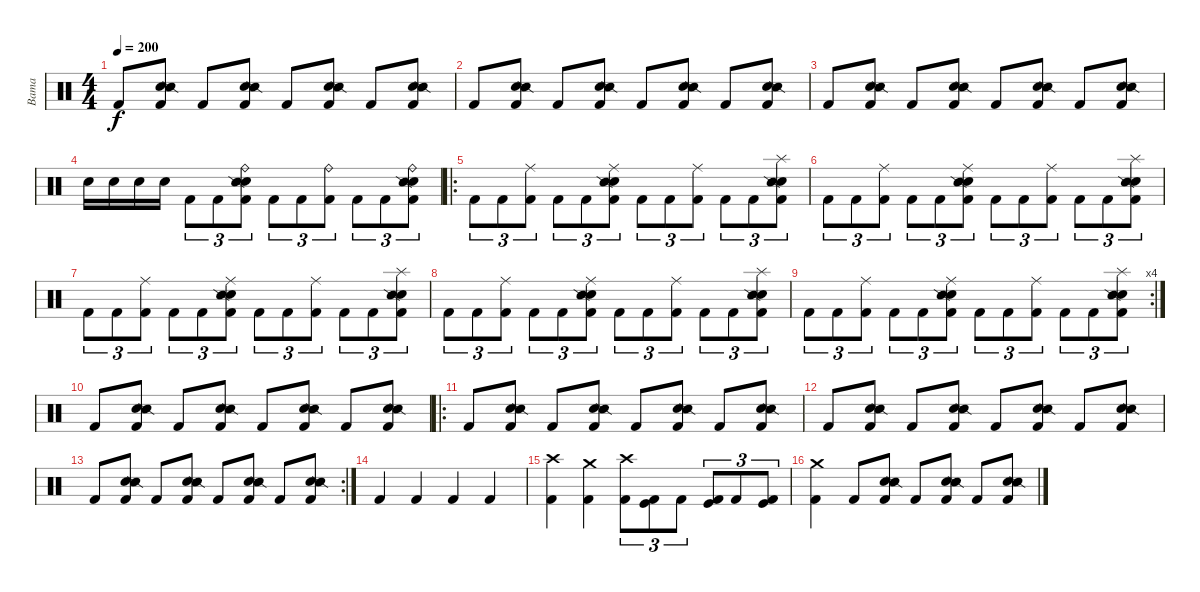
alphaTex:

\track ("Bama" "Bama") {instrument percussion}
\staff {score}
\articulation defaults
\ts (4 4)
\tempo 200
\clef neutral
\ks c "Kick (hit) 2".8{dy f}
("Electric Snare (hit)" "Snare (side stick) 2" "Kick (hit) 2").8 "Kick (hit) 2".8 ("Electric Snare (hit)" "Snare (side stick) 2" "Kick (hit) 2").8 "Kick (hit) 2".8 ("Electric Snare (hit)" "Snare (side stick) 2" "Kick (hit) 2").8 "Kick (hit) 2".8 ("Electric Snare (hit)" "Snare (side stick) 2" "Kick (hit) 2").8 |
"Kick (hit) 2".8 ("Electric Snare (hit)" "Snare (side stick) 2" "Kick (hit) 2").8 "Kick (hit) 2".8 ("Electric Snare (hit)" "Snare (side stick) 2" "Kick (hit) 2").8 "Kick (hit) 2".8 ("Electric Snare (hit)" "Snare (side stick) 2" "Kick (hit) 2").8 "Kick (hit) 2".8 ("Electric Snare (hit)" "Snare (side stick) 2" "Kick (hit) 2").8 |
"Kick (hit) 2".8 ("Electric Snare (hit)" "Snare (side stick) 2" "Kick (hit) 2").8 "Kick (hit) 2".8 ("Electric Snare (hit)" "Snare (side stick) 2" "Kick (hit) 2").8 "Kick (hit) 2".8 ("Electric Snare (hit)" "Snare (side stick) 2" "Kick (hit) 2").8 "Kick (hit) 2".8 ("Electric Snare (hit)" "Snare (side stick) 2" "Kick (hit) 2").8 |
"Electric Snare (hit)".16 "Electric Snare (hit)".16 "Electric Snare (hit)".16 "Electric Snare (hit)".16 "Kick (hit) 2".8{tu (3 2)} "Kick (hit) 2".8{tu (3 2)} ("Ride (bell)" "Electric Snare (hit)" "Snare (side stick) 2" "Kick (hit) 2").8{tu (3 2)} "Kick (hit) 2".8{tu (3 2)} "Kick (hit) 2".8{tu (3 2)} ("Ride (bell)" "Kick (hit) 2").8{tu (3 2)} "Kick (hit) 2".8{tu (3 2)} "Kick (hit) 2".8{tu (3 2)} ("Ride (bell)" "Electric Snare (hit)" "Snare (side stick) 2" "Kick (hit) 2").8{tu (3 2)} |
\ro "Kick (hit) 2".8{tu (3 2)} "Kick (hit) 2".8{tu (3 2)}
("Ride (middle)" "Kick (hit) 2").8{tu (3 2)} "Kick (hit) 2".8{tu (3 2)} "Kick (hit) 2".8{tu (3 2)} ("Ride (middle)" "Electric Snare (hit)" "Snare (side stick) 2" "Kick (hit) 2").8{tu (3 2)} "Kick (hit) 2".8{tu (3 2)} "Kick (hit) 2".8{tu (3 2)} ("Ride (middle)" "Kick (hit) 2").8{tu (3 2)} "Kick (hit) 2".8{tu (3 2)} "Kick (hit) 2".8{tu (3 2)} ("Splash (hit)" "Electric Snare (hit)" "Snare (side stick) 2" "Kick (hit) 2").8{tu (3 2)} |
"Kick (hit) 2".8{tu (3 2)} "Kick (hit) 2".8{tu (3 2)} ("Ride (middle)" "Kick (hit) 2").8{tu (3 2)} "Kick (hit) 2".8{tu (3 2)} "Kick (hit) 2".8{tu (3 2)} ("Ride (middle)" "Electric Snare (hit)" "Snare (side stick) 2" "Kick (hit) 2").8{tu (3 2)} "Kick (hit) 2".8{tu (3 2)} "Kick (hit) 2".8{tu (3 2)} ("Ride (middle)" "Kick (hit) 2").8{tu (3 2)} "Kick (hit) 2".8{tu (3 2)} "Kick (hit) 2".8{tu (3 2)} ("Splash (hit)" "Electric Snare (hit)" "Snare (side stick) 2" "Kick (hit) 2").8{tu (3 2)} |
"Kick (hit) 2".8{tu (3 2)} "Kick (hit) 2".8{tu (3 2)} ("Ride (middle)" "Kick (hit) 2").8{tu (3 2)} "Kick (hit) 2".8{tu (3 2)} "Kick (hit) 2".8{tu (3 2)} ("Ride (middle)" "Electric Snare (hit)" "Snare (side stick) 2" "Kick (hit) 2").8{tu (3 2)} "Kick (hit) 2".8{tu (3 2)} "Kick (hit) 2".8{tu (3 2)} ("Ride (middle)" "Kick (hit) 2").8{tu (3 2)} "Kick (hit) 2".8{tu (3 2)} "Kick (hit) 2".8{tu (3 2)} ("Splash (hit)" "Electric Snare (hit)" "Snare (side stick) 2" "Kick (hit) 2").8{tu (3 2)} |
"Kick (hit) 2".8{tu (3 2)} "Kick (hit) 2".8{tu (3 2)} ("Ride (middle)" "Kick (hit) 2").8{tu (3 2)} "Kick (hit) 2".8{tu (3 2)} "Kick (hit) 2".8{tu (3 2)} ("Ride (middle)" "Electric Snare (hit)" "Snare (side stick) 2" "Kick (hit) 2").8{tu (3 2)} "Kick (hit) 2".8{tu (3 2)} "Kick (hit) 2".8{tu (3 2)} ("Ride (middle)" "Kick (hit) 2").8{tu (3 2)} "Kick (hit) 2".8{tu (3 2)} "Kick (hit) 2".8{tu (3 2)} ("Splash (hit)" "Electric Snare (hit)" "Snare (side stick) 2" "Kick (hit) 2").8{tu (3 2)} |
\rc 4 "Kick (hit) 2".8{tu (3 2)} "Kick (hit) 2".8{tu (3 2)}
("Ride (middle)" "Kick (hit) 2").8{tu (3 2)} "Kick (hit) 2".8{tu (3 2)} "Kick (hit) 2".8{tu (3 2)} ("Ride (middle)" "Electric Snare (hit)" "Snare (side stick) 2" "Kick (hit) 2").8{tu (3 2)} "Kick (hit) 2".8{tu (3 2)} "Kick (hit) 2".8{tu (3 2)} ("Ride (middle)" "Kick (hit) 2").8{tu (3 2)} "Kick (hit) 2".8{tu (3 2)} "Kick (hit) 2".8{tu (3 2)} ("Splash (hit)" "Electric Snare (hit)" "Snare (side stick) 2" "Kick (hit) 2").8{tu (3 2)} |
"Kick (hit) 2".8 ("Electric Snare (hit)" "Snare (side stick) 2" "Kick (hit) 2").8 "Kick (hit) 2".8 ("Electric Snare (hit)" "Snare (side stick) 2" "Kick (hit) 2").8 "Kick (hit) 2".8 ("Electric Snare (hit)" "Snare (side stick) 2" "Kick (hit) 2").8 "Kick (hit) 2".8 ("Electric Snare (hit)" "Snare (side stick) 2" "Kick (hit) 2").8 |
\ro "Kick (hit) 2".8
("Electric Snare (hit)" "Snare (side stick) 2" "Kick (hit) 2").8 "Kick (hit) 2".8 ("Electric Snare (hit)" "Snare (side stick) 2" "Kick (hit) 2").8 "Kick (hit) 2".8 ("Electric Snare (hit)" "Snare (side stick) 2" "Kick (hit) 2").8 "Kick (hit) 2".8 ("Electric Snare (hit)" "Snare (side stick) 2" "Kick (hit) 2").8 |
"Kick (hit) 2".8 ("Electric Snare (hit)" "Snare (side stick) 2" "Kick (hit) 2").8 "Kick (hit) 2".8 ("Electric Snare (hit)" "Snare (side stick) 2" "Kick (hit) 2").8 "Kick (hit) 2".8 ("Electric Snare (hit)" "Snare (side stick) 2" "Kick (hit) 2").8 "Kick (hit) 2".8 ("Electric Snare (hit)" "Snare (side stick) 2" "Kick (hit) 2").8 |
\rc 2 "Kick (hit) 2".8
("Electric Snare (hit)" "Snare (side stick) 2" "Kick (hit) 2").8 "Kick (hit) 2".8 ("Electric Snare (hit)" "Snare (side stick) 2" "Kick (hit) 2").8 "Kick (hit) 2".8 ("Electric Snare (hit)" "Snare (side stick) 2" "Kick (hit) 2").8 "Kick (hit) 2".8 ("Electric Snare (hit)" "Snare (side stick) 2" "Kick (hit) 2").8 |
"Kick (hit) 2".4 "Kick (hit) 2".4 "Kick (hit) 2".4 "Kick (hit) 2".4 |
("Crash high (hit)" "Kick (hit) 2").4 ("Crash medium (hit)" "Kick (hit) 2").4 ("Crash high (hit)" "Kick (hit) 2").8{tu (3 2)} ("Kick (hit)" "Kick (hit) 2").8{tu (3 2)} "Kick (hit) 2".8{tu (3 2)} ("Kick (hit)" "Kick (hit) 2").8{tu (3 2)} "Kick (hit) 2".8{tu (3 2)} ("Kick (hit)" "Kick (hit) 2").8{tu (3 2)} |
("Crash medium (hit)" "Kick (hit) 2").4 "Kick (hit) 2".8 ("Electric Snare (hit)" "Snare (side stick) 2" "Kick (hit) 2").8 "Kick (hit) 2".8 ("Electric Snare (hit)" "Snare (side stick) 2" "Kick (hit) 2").8 "Kick (hit) 2".8 ("Electric Snare (hit)" "Snare (side stick) 2" "Kick (hit) 2").8
